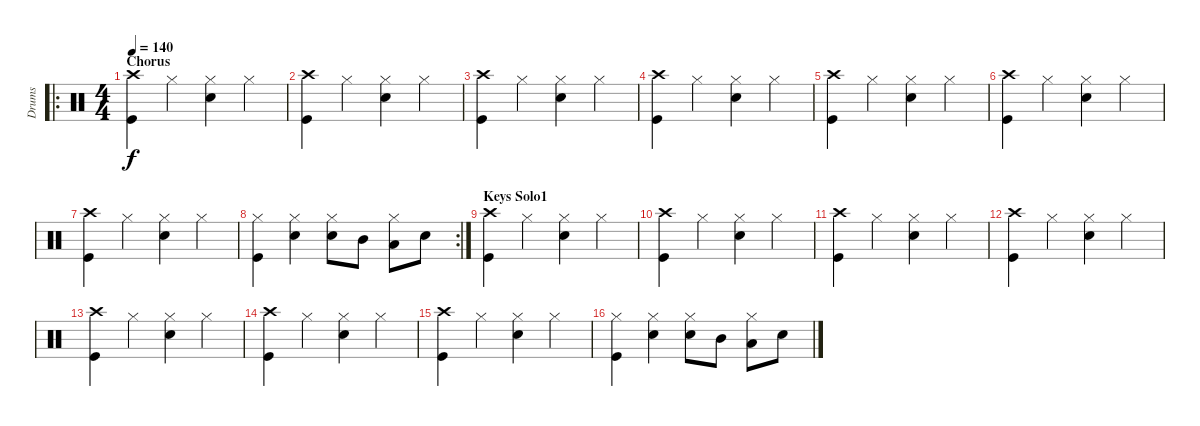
\track ("Drums" "Drums") {instrument percussion}
\staff {score}
\articulation defaults
\ro
\ts (4 4)
\section ("" "Chorus")
\tempo 140
\clef neutral
\ks c
("Crash high (hit)" "Kick (hit)").4{dy f} "Hi-Hat (closed)".4 ("Hi-Hat (closed)" "Snare (hit) 2").4 "Hi-Hat (closed)".4 |
("Crash high (hit)" "Kick (hit)").4 "Hi-Hat (closed)".4 ("Hi-Hat (closed)" "Snare (hit) 2").4 "Hi-Hat (closed)".4 |
("Crash high (hit)" "Kick (hit)").4 "Hi-Hat (closed)".4 ("Hi-Hat (closed)" "Snare (hit) 2").4 "Hi-Hat (closed)".4 |
("Crash high (hit)" "Kick (hit)").4 "Hi-Hat (closed)".4 ("Hi-Hat (closed)" "Snare (hit) 2").4 "Hi-Hat (closed)".4 |
("Crash high (hit)" "Kick (hit)").4 "Hi-Hat (closed)".4 ("Hi-Hat (closed)" "Snare (hit) 2").4 "Hi-Hat (closed)".4 |
("Crash high (hit)" "Kick (hit)").4 "Hi-Hat (closed)".4 ("Hi-Hat (closed)" "Snare (hit) 2").4 "Hi-Hat (closed)".4 |
("Crash high (hit)" "Kick (hit)").4 "Hi-Hat (closed)".4 ("Hi-Hat (closed)" "Snare (hit) 2").4 "Hi-Hat (closed)".4 |
\rc 2
("Hi-Hat (closed)" "Kick (hit)").4 ("Hi-Hat (closed)" "Snare (hit) 2").4 ("Hi-Hat (closed)" "Snare (hit) 2").8 "Mid Tom (hit)".8 ("Hi-Hat (closed)" "Low Tom (hit)").8 "Snare (hit) 2".8 |
\section ("" "Keys Solo1")
("Crash high (hit)" "Kick (hit)").4 "Hi-Hat (closed)".4 ("Hi-Hat (closed)" "Snare (hit) 2").4 "Hi-Hat (closed)".4 |
("Crash high (hit)" "Kick (hit)").4 "Hi-Hat (closed)".4 ("Hi-Hat (closed)" "Snare (hit) 2").4 "Hi-Hat (closed)".4 |
("Crash high (hit)" "Kick (hit)").4 "Hi-Hat (closed)".4 ("Hi-Hat (closed)" "Snare (hit) 2").4 "Hi-Hat (closed)".4 |
("Crash high (hit)" "Kick (hit)").4 "Hi-Hat (closed)".4 ("Hi-Hat (closed)" "Snare (hit) 2").4 "Hi-Hat (closed)".4 |
("Crash high (hit)" "Kick (hit)").4 "Hi-Hat (closed)".4 ("Hi-Hat (closed)" "Snare (hit) 2").4 "Hi-Hat (closed)".4 |
("Crash high (hit)" "Kick (hit)").4 "Hi-Hat (closed)".4 ("Hi-Hat (closed)" "Snare (hit) 2").4 "Hi-Hat (closed)".4 |
("Crash high (hit)" "Kick (hit)").4 "Hi-Hat (closed)".4 ("Hi-Hat (closed)" "Snare (hit) 2").4 "Hi-Hat (closed)".4 |
("Hi-Hat (closed)" "Kick (hit)").4 ("Hi-Hat (closed)" "Snare (hit) 2").4 ("Hi-Hat (closed)" "Snare (hit) 2").8 "Mid Tom (hit)".8 ("Hi-Hat (closed)" "Low Tom (hit)").8 "Snare (hit) 2".8
